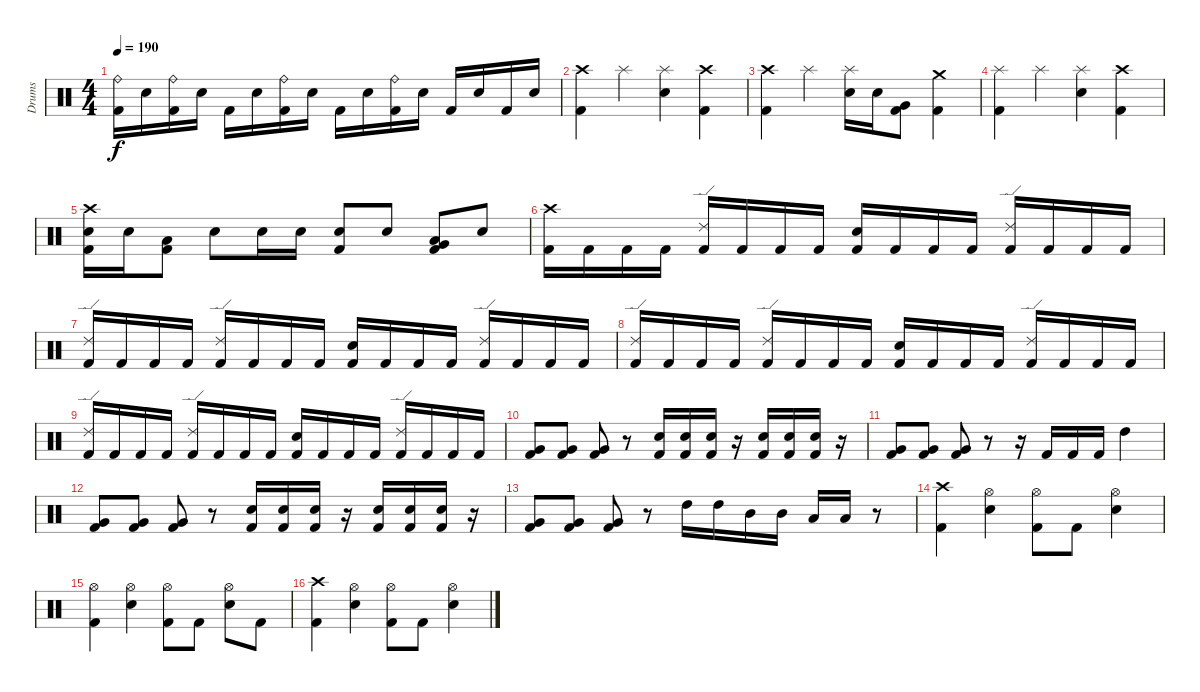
\track ("Drums" "Drums") {instrument percussion}
\staff {score}
\articulation defaults
\ts (4 4)
\tempo 190
\clef neutral
\ks c
("Ride (bell)" "Kick (hit) 2").16{dy f} "Snare (hit) 2".16 ("Ride (bell)" "Kick (hit) 2").16 "Snare (hit) 2".16 "Kick (hit) 2".16 "Snare (hit) 2".16 ("Ride (bell)" "Kick (hit) 2").16 "Snare (hit) 2".16 "Kick (hit) 2".16 "Snare (hit) 2".16 ("Ride (bell)" "Kick (hit) 2").16 "Snare (hit) 2".16 "Kick (hit) 2".16 "Snare (hit) 2".16 "Kick (hit) 2".16 "Snare (hit) 2".16 |
("Crash high (hit)" "Kick (hit) 2").4 "Splash (hit)".4 ("Splash (hit)" "Snare (hit) 2").4 ("Crash high (hit)" "Kick (hit) 2").4 |
("Crash high (hit)" "Kick (hit) 2").4 "Splash (hit)".4 ("Splash (hit)" "Snare (hit) 2").16 "Snare (hit) 2".16 ("Very Low Tom (hit)" "Kick (hit) 2").8 ("Crash medium (hit)" "Kick (hit) 2").4 |
("Splash (hit)" "Kick (hit) 2").4 "Splash (hit)".4 ("Splash (hit)" "Snare (hit) 2").4 ("Crash high (hit)" "Kick (hit) 2").4 |
("Crash high (hit)" "Snare (hit) 2" "Kick (hit) 2").16 "Snare (hit) 2".16 ("Low Tom (hit)" "Kick (hit) 2").8 "Snare (hit) 2".8 "Snare (hit) 2".16 "Snare (hit) 2".16 ("Snare (hit) 2" "Kick (hit) 2").8 "Snare (hit) 2".8 ("Very Low Tom (hit)" "Low Tom (hit)" "Kick (hit) 2").8 "Snare (hit) 2".8 |
("Crash high (hit)" "Kick (hit) 2").16 "Kick (hit) 2".16 "Kick (hit) 2".16 "Kick (hit) 2".16 ("Ride (edge) 2" "Kick (hit) 2").16 "Kick (hit) 2".16 "Kick (hit) 2".16 "Kick (hit) 2".16 ("Snare (hit) 2" "Kick (hit) 2").16 "Kick (hit) 2".16 "Kick (hit) 2".16 "Kick (hit) 2".16 ("Ride (edge) 2" "Kick (hit) 2").16 "Kick (hit) 2".16 "Kick (hit) 2".16 "Kick (hit) 2".16 |
("Ride (edge) 2" "Kick (hit) 2").16 "Kick (hit) 2".16 "Kick (hit) 2".16 "Kick (hit) 2".16 ("Ride (edge) 2" "Kick (hit) 2").16 "Kick (hit) 2".16 "Kick (hit) 2".16 "Kick (hit) 2".16 ("Snare (hit) 2" "Kick (hit) 2").16 "Kick (hit) 2".16 "Kick (hit) 2".16 "Kick (hit) 2".16 ("Ride (edge) 2" "Kick (hit) 2").16 "Kick (hit) 2".16 "Kick (hit) 2".16 "Kick (hit) 2".16 |
("Ride (edge) 2" "Kick (hit) 2").16 "Kick (hit) 2".16 "Kick (hit) 2".16 "Kick (hit) 2".16 ("Ride (edge) 2" "Kick (hit) 2").16 "Kick (hit) 2".16 "Kick (hit) 2".16 "Kick (hit) 2".16 ("Snare (hit) 2" "Kick (hit) 2").16 "Kick (hit) 2".16 "Kick (hit) 2".16 "Kick (hit) 2".16 ("Ride (edge) 2" "Kick (hit) 2").16 "Kick (hit) 2".16 "Kick (hit) 2".16 "Kick (hit) 2".16 |
("Ride (edge) 2" "Kick (hit) 2").16 "Kick (hit) 2".16 "Kick (hit) 2".16 "Kick (hit) 2".16 ("Ride (edge) 2" "Kick (hit) 2").16 "Kick (hit) 2".16 "Kick (hit) 2".16 "Kick (hit) 2".16 ("Snare (hit) 2" "Kick (hit) 2").16 "Kick (hit) 2".16 "Kick (hit) 2".16 "Kick (hit) 2".16 ("Ride (edge) 2" "Kick (hit) 2").16 "Kick (hit) 2".16 "Kick (hit) 2".16 "Kick (hit) 2".16 |
("Very Low Tom (hit)" "Kick (hit) 2").8 ("Very Low Tom (hit)" "Kick (hit) 2").8 ("Very Low Tom (hit)" "Kick (hit) 2").8 r.8 ("Snare (hit) 2" "Kick (hit) 2").16 ("Snare (hit) 2" "Kick (hit) 2").16 ("Snare (hit) 2" "Kick (hit) 2").16 r.16 ("Snare (hit) 2" "Kick (hit) 2").16 ("Snare (hit) 2" "Kick (hit) 2").16 ("Snare (hit) 2" "Kick (hit) 2").16 r.16 |
("Very Low Tom (hit)" "Kick (hit) 2").8 ("Very Low Tom (hit)" "Kick (hit) 2").8 ("Very Low Tom (hit)" "Kick (hit) 2").8 r.8 r.16 "Kick (hit) 2".16 "Kick (hit) 2".16 "Kick (hit) 2".16 "High Tom (hit)".4 |
("Very Low Tom (hit)" "Kick (hit) 2").8 ("Very Low Tom (hit)" "Kick (hit) 2").8 ("Very Low Tom (hit)" "Kick (hit) 2").8 r.8 ("Snare (hit) 2" "Kick (hit) 2").16 ("Snare (hit) 2" "Kick (hit) 2").16 ("Snare (hit) 2" "Kick (hit) 2").16 r.16 ("Snare (hit) 2" "Kick (hit) 2").16 ("Snare (hit) 2" "Kick (hit) 2").16 ("Snare (hit) 2" "Kick (hit) 2").16 r.16 |
("Very Low Tom (hit)" "Kick (hit) 2").8 ("Very Low Tom (hit)" "Kick (hit) 2").8 ("Very Low Tom (hit)" "Kick (hit) 2").8 r.8 "High Tom (hit)".16 "High Tom (hit)".16 "Mid Tom (hit)".16 "Mid Tom (hit)".16 "Low Tom (hit)".16 "Low Tom (hit)".16 r.8 |
("Crash high (hit)" "Kick (hit) 2").4 ("Hi-Hat (open)" "Snare (hit) 2").4 ("Hi-Hat (open)" "Kick (hit) 2").8 "Kick (hit) 2".8 ("Hi-Hat (open)" "Snare (hit) 2").4 |
("Hi-Hat (open)" "Kick (hit) 2").4 ("Hi-Hat (open)" "Snare (hit) 2").4 ("Hi-Hat (open)" "Kick (hit) 2").8 "Kick (hit) 2".8 ("Hi-Hat (open)" "Snare (hit) 2").8 "Kick (hit) 2".8 |
("Crash high (hit)" "Kick (hit) 2").4 ("Hi-Hat (open)" "Snare (hit) 2").4 ("Hi-Hat (open)" "Kick (hit) 2").8 "Kick (hit) 2".8 ("Hi-Hat (open)" "Snare (hit) 2").4
